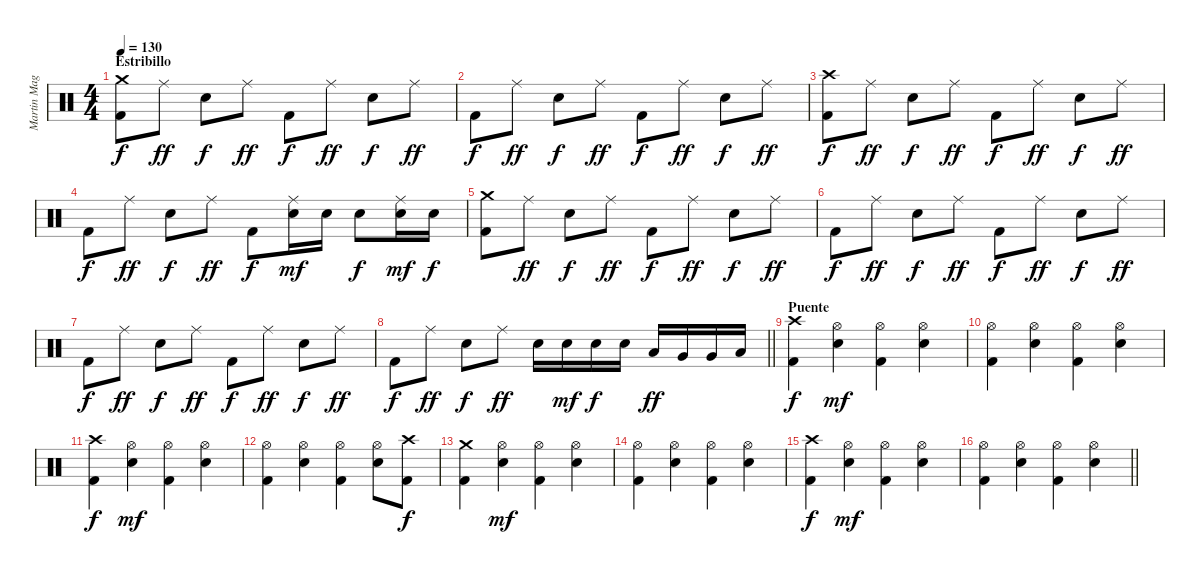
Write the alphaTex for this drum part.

\track ("Martin Magliano" "Martin Mag") {instrument percussion}
\staff {score}
\articulation defaults
\ts (4 4)
\section ("" "Estribillo")
\tempo 130
\clef neutral
\ks c
("Crash medium (hit)" "Kick (hit) 2").8{dy f} "Ride (middle)".8{dy ff} "Snare (hit) 2".8{dy f} "Ride (middle)".8{dy ff} "Kick (hit) 2".8{dy f} "Ride (middle)".8{dy ff} "Snare (hit) 2".8{dy f} "Ride (middle)".8{dy ff} |
"Kick (hit) 2".8{dy f} "Ride (middle)".8{dy ff} "Snare (hit) 2".8{dy f} "Ride (middle)".8{dy ff} "Kick (hit) 2".8{dy f} "Ride (middle)".8{dy ff} "Snare (hit) 2".8{dy f} "Ride (middle)".8{dy ff} |
("Crash high (hit)" "Kick (hit) 2").8{dy f} "Ride (middle)".8{dy ff} "Snare (hit) 2".8{dy f} "Ride (middle)".8{dy ff} "Kick (hit) 2".8{dy f} "Ride (middle)".8{dy ff} "Snare (hit) 2".8{dy f} "Ride (middle)".8{dy ff} |
"Kick (hit) 2".8{dy f} "Ride (middle)".8{dy ff} "Snare (hit) 2".8{dy f} "Ride (middle)".8{dy ff} "Kick (hit) 2".8{dy f} ("Ride (middle)" "Snare (hit) 2").16{dy mf} "Snare (hit) 2".16 "Snare (hit) 2".8{dy f} ("Ride (middle)" "Snare (hit) 2").16{dy mf} "Snare (hit) 2".16{dy f} |
("Crash medium (hit)" "Kick (hit) 2").8 "Ride (middle)".8{dy ff} "Snare (hit) 2".8{dy f} "Ride (middle)".8{dy ff} "Kick (hit) 2".8{dy f} "Ride (middle)".8{dy ff} "Snare (hit) 2".8{dy f} "Ride (middle)".8{dy ff} |
"Kick (hit) 2".8{dy f} "Ride (middle)".8{dy ff} "Snare (hit) 2".8{dy f} "Ride (middle)".8{dy ff} "Kick (hit) 2".8{dy f} "Ride (middle)".8{dy ff} "Snare (hit) 2".8{dy f} "Ride (middle)".8{dy ff} |
"Kick (hit) 2".8{dy f} "Ride (middle)".8{dy ff} "Snare (hit) 2".8{dy f} "Ride (middle)".8{dy ff} "Kick (hit) 2".8{dy f} "Ride (middle)".8{dy ff} "Snare (hit) 2".8{dy f} "Ride (middle)".8{dy ff} |
\barLineRight lightlight "Kick (hit) 2".8{dy f} "Ride (middle)".8{dy ff} "Snare (hit) 2".8{dy f} "Ride (middle)".8{dy ff} "Snare (hit) 2".16 "Snare (hit) 2".16{dy mf} "Snare (hit) 2".16{dy f} "Snare (hit) 2".16 "Low Tom (hit)".16{dy ff} "Very Low Tom (hit)".16 "Very Low Tom (hit)".16 "Low Floor Tom (hit)".16
|
\section ("" "Puente")
("Crash high (hit)" "Kick (hit) 2").4{dy f} ("Hi-Hat (open)" "Snare (hit) 2").4{dy mf} ("Hi-Hat (open)" "Kick (hit) 2").4 ("Hi-Hat (open)" "Snare (hit) 2").4 |
("Hi-Hat (open)" "Kick (hit) 2").4 ("Hi-Hat (open)" "Snare (hit) 2").4 ("Hi-Hat (open)" "Kick (hit) 2").4 ("Hi-Hat (open)" "Snare (hit) 2").4 |
("Crash high (hit)" "Kick (hit) 2").4{dy f} ("Hi-Hat (open)" "Snare (hit) 2").4{dy mf} ("Hi-Hat (open)" "Kick (hit) 2").4 ("Hi-Hat (open)" "Snare (hit) 2").4 |
("Hi-Hat (open)" "Kick (hit) 2").4 ("Hi-Hat (open)" "Snare (hit) 2").4 ("Hi-Hat (open)" "Kick (hit) 2").4 ("Hi-Hat (open)" "Snare (hit) 2").8 ("Crash high (hit)" "Kick (hit) 2").8{dy f} |
("Crash medium (hit)" "Kick (hit) 2").4 ("Hi-Hat (open)" "Snare (hit) 2").4{dy mf} ("Hi-Hat (open)" "Kick (hit) 2").4 ("Hi-Hat (open)" "Snare (hit) 2").4 |
("Hi-Hat (open)" "Kick (hit) 2").4 ("Hi-Hat (open)" "Snare (hit) 2").4 ("Hi-Hat (open)" "Kick (hit) 2").4 ("Hi-Hat (open)" "Snare (hit) 2").4 |
("Crash high (hit)" "Kick (hit) 2").4{dy f} ("Hi-Hat (open)" "Snare (hit) 2").4{dy mf} ("Hi-Hat (open)" "Kick (hit) 2").4 ("Hi-Hat (open)" "Snare (hit) 2").4 |
\barLineRight lightlight
("Hi-Hat (open)" "Kick (hit) 2").4 ("Hi-Hat (open)" "Snare (hit) 2").4 ("Hi-Hat (open)" "Kick (hit) 2").4 ("Hi-Hat (open)" "Snare (hit) 2").4
